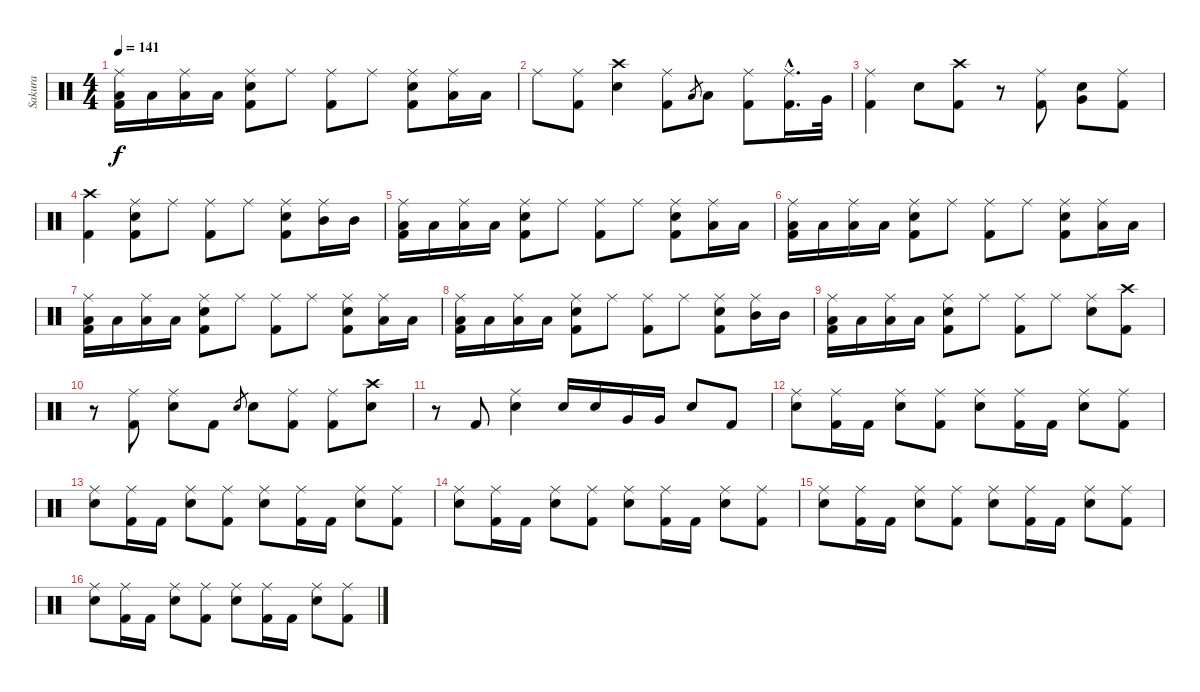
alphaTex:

\track ("Sakura" "Sakura") {instrument percussion}
\staff {score}
\articulation defaults
\ts (4 4)
\tempo 141
\clef neutral
\ks c
("Ride (middle)" "Low Tom (hit)" "Kick (hit) 2").16{dy f} "Low Tom (hit)".16 ("Ride (middle)" "Low Floor Tom (hit)").16 "Low Floor Tom (hit)".16 ("Ride (middle)" "Snare (hit) 2" "Kick (hit) 2").8 "Ride (middle)".8 ("Ride (middle)" "Kick (hit) 2").8 "Ride (middle)".8 ("Ride (middle)" "Snare (hit) 2" "Kick (hit) 2").8 ("Ride (middle)" "Low Tom (hit)").16 "Low Tom (hit)".16 |
"Ride (middle)".8 ("Ride (middle)" "Kick (hit) 2").8 ("Crash high (hit)" "Snare (hit) 2").4 ("Ride (middle)" "Kick (hit) 2").8 "Low Tom (hit)".8{gr} "Low Tom (hit)".8 ("Ride (middle)" "Kick (hit) 2").8 ("Ride (middle)"{hac} "Kick (hit) 2"{hac}).16{d} "Very Low Tom (hit)".32 |
("Ride (middle)" "Kick (hit) 2").4 "Snare (hit) 2".8 ("Crash high (hit)" "Kick (hit) 2").8 r.8 ("Ride (middle)" "Kick (hit) 2").8 ("Snare (hit) 2" "Very Low Tom (hit)").8 ("Ride (middle)" "Kick (hit) 2").8 |
("Crash high (hit)" "Kick (hit) 2").4 ("Ride (middle)" "Snare (hit) 2" "Kick (hit) 2").8 "Ride (middle)".8 ("Ride (middle)" "Kick (hit) 2").8 "Ride (middle)".8 ("Ride (middle)" "Snare (hit) 2" "Kick (hit) 2").8 ("Ride (middle)" "Mid Tom (hit)").16 "Mid Tom (hit)".16 |
("Ride (middle)" "Low Tom (hit)" "Kick (hit) 2").16 "Low Tom (hit)".16 ("Ride (middle)" "Low Floor Tom (hit)").16 "Low Floor Tom (hit)".16 ("Ride (middle)" "Snare (hit) 2" "Kick (hit) 2").8 "Ride (middle)".8 ("Ride (middle)" "Kick (hit) 2").8 "Ride (middle)".8 ("Ride (middle)" "Snare (hit) 2" "Kick (hit) 2").8 ("Ride (middle)" "Low Tom (hit)").16 "Low Tom (hit)".16 |
("Ride (middle)" "Low Tom (hit)" "Kick (hit) 2").16 "Low Tom (hit)".16 ("Ride (middle)" "Low Floor Tom (hit)").16 "Low Floor Tom (hit)".16 ("Ride (middle)" "Snare (hit) 2" "Kick (hit) 2").8 "Ride (middle)".8 ("Ride (middle)" "Kick (hit) 2").8 "Ride (middle)".8 ("Ride (middle)" "Snare (hit) 2" "Kick (hit) 2").8 ("Ride (middle)" "Low Tom (hit)").16 "Low Tom (hit)".16 |
("Ride (middle)" "Low Tom (hit)" "Kick (hit) 2").16 "Low Tom (hit)".16 ("Ride (middle)" "Low Floor Tom (hit)").16 "Low Floor Tom (hit)".16 ("Ride (middle)" "Snare (hit) 2" "Kick (hit) 2").8 "Ride (middle)".8 ("Ride (middle)" "Kick (hit) 2").8 "Ride (middle)".8 ("Ride (middle)" "Snare (hit) 2" "Kick (hit) 2").8 ("Ride (middle)" "Low Tom (hit)").16 "Low Tom (hit)".16 |
("Ride (middle)" "Low Tom (hit)" "Kick (hit) 2").16 "Low Tom (hit)".16 ("Ride (middle)" "Low Floor Tom (hit)").16 "Low Floor Tom (hit)".16 ("Ride (middle)" "Snare (hit) 2" "Kick (hit) 2").8 "Ride (middle)".8 ("Ride (middle)" "Kick (hit) 2").8 "Ride (middle)".8 ("Ride (middle)" "Snare (hit) 2" "Kick (hit) 2").8 ("Ride (middle)" "Mid Tom (hit)").16 "Mid Tom (hit)".16 |
("Ride (middle)" "Low Tom (hit)" "Kick (hit) 2").16 "Low Tom (hit)".16 ("Ride (middle)" "Low Floor Tom (hit)").16 "Low Floor Tom (hit)".16 ("Ride (middle)" "Snare (hit) 2" "Kick (hit) 2").8 "Ride (middle)".8 ("Ride (middle)" "Kick (hit) 2").8 "Ride (middle)".8 ("Ride (middle)" "Snare (hit) 2").8 ("Crash high (hit)" "Kick (hit) 2").8 |
r.8 ("Ride (middle)" "Kick (hit) 2").8 ("Ride (middle)" "Snare (hit) 2").8 "Kick (hit) 2".8 "Snare (hit) 2".8{gr} "Snare (hit) 2".8 ("Ride (middle)" "Kick (hit) 2").8 ("Ride (middle)" "Kick (hit) 2").8 ("Crash high (hit)" "Snare (hit) 2").8 |
r.8 "Kick (hit) 2".8 ("Ride (middle)" "Snare (hit) 2").4 "Snare (hit) 2".16 "Snare (hit) 2".16 "Very Low Tom (hit)".16 "Very Low Tom (hit)".16 "Snare (hit) 2".8 "Kick (hit) 2".8 |
("Ride (middle)" "Snare (hit) 2").8 ("Ride (middle)" "Kick (hit) 2").16 "Kick (hit) 2".16 ("Ride (middle)" "Snare (hit) 2").8 ("Ride (middle)" "Kick (hit) 2").8 ("Ride (middle)" "Snare (hit) 2").8 ("Ride (middle)" "Kick (hit) 2").16 "Kick (hit) 2".16 ("Ride (middle)" "Snare (hit) 2").8 ("Ride (middle)" "Kick (hit) 2").8 |
("Ride (middle)" "Snare (hit) 2").8 ("Ride (middle)" "Kick (hit) 2").16 "Kick (hit) 2".16 ("Ride (middle)" "Snare (hit) 2").8 ("Ride (middle)" "Kick (hit) 2").8 ("Ride (middle)" "Snare (hit) 2").8 ("Ride (middle)" "Kick (hit) 2").16 "Kick (hit) 2".16 ("Ride (middle)" "Snare (hit) 2").8 ("Ride (middle)" "Kick (hit) 2").8 |
("Ride (middle)" "Snare (hit) 2").8 ("Ride (middle)" "Kick (hit) 2").16 "Kick (hit) 2".16 ("Ride (middle)" "Snare (hit) 2").8 ("Ride (middle)" "Kick (hit) 2").8 ("Ride (middle)" "Snare (hit) 2").8 ("Ride (middle)" "Kick (hit) 2").16 "Kick (hit) 2".16 ("Ride (middle)" "Snare (hit) 2").8 ("Ride (middle)" "Kick (hit) 2").8 |
("Ride (middle)" "Snare (hit) 2").8 ("Ride (middle)" "Kick (hit) 2").16 "Kick (hit) 2".16 ("Ride (middle)" "Snare (hit) 2").8 ("Ride (middle)" "Kick (hit) 2").8 ("Ride (middle)" "Snare (hit) 2").8 ("Ride (middle)" "Kick (hit) 2").16 "Kick (hit) 2".16 ("Ride (middle)" "Snare (hit) 2").8 ("Ride (middle)" "Kick (hit) 2").8 |
("Ride (middle)" "Snare (hit) 2").8 ("Ride (middle)" "Kick (hit) 2").16 "Kick (hit) 2".16 ("Ride (middle)" "Snare (hit) 2").8 ("Ride (middle)" "Kick (hit) 2").8 ("Ride (middle)" "Snare (hit) 2").8 ("Ride (middle)" "Kick (hit) 2").16 "Kick (hit) 2".16 ("Ride (middle)" "Snare (hit) 2").8 ("Ride (middle)" "Kick (hit) 2").8
